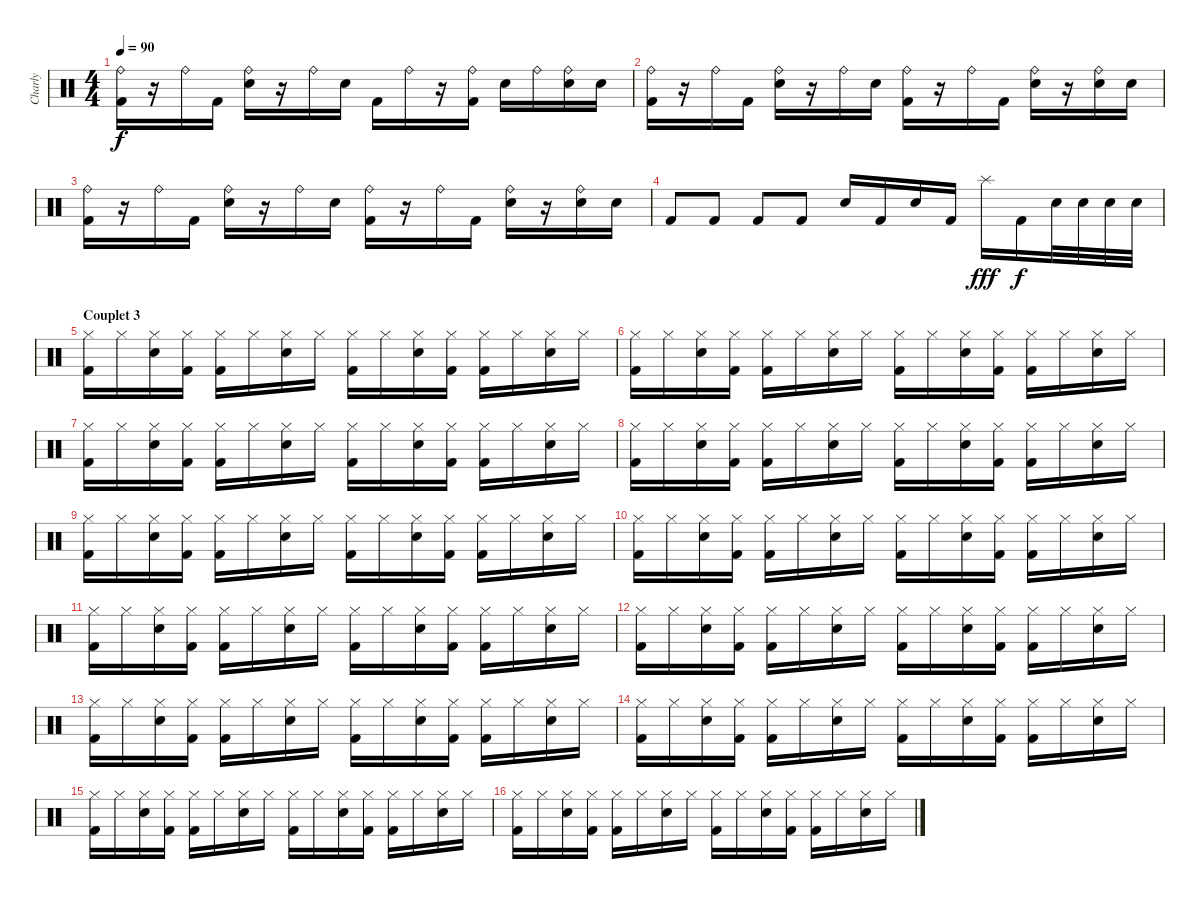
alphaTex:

\track ("Charly" "Charly") {instrument percussion}
\staff {score}
\articulation defaults
\ts (4 4)
\tempo 90
\clef neutral
\ks c
("Ride (bell)" "Kick (hit) 2").16{dy f} r.16 "Ride (bell)".16 "Kick (hit) 2".16 ("Ride (bell)" "Electric Snare (hit)").16 r.16 "Ride (bell)".16 "Electric Snare (hit)".16 "Kick (hit) 2".16 "Ride (bell)".16 r.16 ("Ride (bell)" "Kick (hit) 2").16 "Electric Snare (hit)".16 "Ride (bell)".16 ("Ride (bell)" "Electric Snare (hit)").16 "Electric Snare (hit)".16 |
("Ride (bell)" "Kick (hit) 2").16 r.16 "Ride (bell)".16 "Kick (hit) 2".16 ("Ride (bell)" "Electric Snare (hit)").16 r.16 "Ride (bell)".16 "Electric Snare (hit)".16 ("Ride (bell)" "Kick (hit) 2").16 r.16 "Ride (bell)".16 "Kick (hit) 2".16 ("Ride (bell)" "Electric Snare (hit)").16 r.16 ("Ride (bell)" "Electric Snare (hit)").16 "Electric Snare (hit)".16 |
("Ride (bell)" "Kick (hit) 2").16 r.16 "Ride (bell)".16 "Kick (hit) 2".16 ("Ride (bell)" "Electric Snare (hit)").16 r.16 "Ride (bell)".16 "Electric Snare (hit)".16 ("Ride (bell)" "Kick (hit) 2").16 r.16 "Ride (bell)".16 "Kick (hit) 2".16 ("Ride (bell)" "Electric Snare (hit)").16 r.16 ("Ride (bell)" "Electric Snare (hit)").16 "Electric Snare (hit)".16 |
"Kick (hit) 2".8 "Kick (hit) 2".8 "Kick (hit) 2".8 "Kick (hit) 2".8 "Electric Snare (hit)".16 "Kick (hit) 2".16 "Electric Snare (hit)".16 "Kick (hit) 2".16 "Splash (hit)".16{dy fff} "Kick (hit) 2".16{dy f} "Electric Snare (hit)".32 "Electric Snare (hit)".32 "Electric Snare (hit)".32 "Electric Snare (hit)".32 |
\section ("" "Couplet 3")
("Hi-Hat (closed)" "Kick (hit) 2").16 "Hi-Hat (closed)".16 ("Hi-Hat (closed)" "Electric Snare (hit)").16 ("Hi-Hat (closed)" "Kick (hit) 2").16 ("Hi-Hat (closed)" "Kick (hit) 2").16 "Hi-Hat (closed)".16 ("Hi-Hat (closed)" "Electric Snare (hit)").16 "Hi-Hat (closed)".16 ("Hi-Hat (closed)" "Kick (hit) 2").16 "Hi-Hat (closed)".16 ("Hi-Hat (closed)" "Electric Snare (hit)").16 ("Hi-Hat (closed)" "Kick (hit) 2").16 ("Hi-Hat (closed)" "Kick (hit) 2").16 "Hi-Hat (closed)".16 ("Hi-Hat (closed)" "Electric Snare (hit)").16 "Hi-Hat (closed)".16 |
("Hi-Hat (closed)" "Kick (hit) 2").16 "Hi-Hat (closed)".16 ("Hi-Hat (closed)" "Electric Snare (hit)").16 ("Hi-Hat (closed)" "Kick (hit) 2").16 ("Hi-Hat (closed)" "Kick (hit) 2").16 "Hi-Hat (closed)".16 ("Hi-Hat (closed)" "Electric Snare (hit)").16 "Hi-Hat (closed)".16 ("Hi-Hat (closed)" "Kick (hit) 2").16 "Hi-Hat (closed)".16 ("Hi-Hat (closed)" "Electric Snare (hit)").16 ("Hi-Hat (closed)" "Kick (hit) 2").16 ("Hi-Hat (closed)" "Kick (hit) 2").16 "Hi-Hat (closed)".16 ("Hi-Hat (closed)" "Electric Snare (hit)").16 "Hi-Hat (closed)".16 |
("Hi-Hat (closed)" "Kick (hit) 2").16 "Hi-Hat (closed)".16 ("Hi-Hat (closed)" "Electric Snare (hit)").16 ("Hi-Hat (closed)" "Kick (hit) 2").16 ("Hi-Hat (closed)" "Kick (hit) 2").16 "Hi-Hat (closed)".16 ("Hi-Hat (closed)" "Electric Snare (hit)").16 "Hi-Hat (closed)".16 ("Hi-Hat (closed)" "Kick (hit) 2").16 "Hi-Hat (closed)".16 ("Hi-Hat (closed)" "Electric Snare (hit)").16 ("Hi-Hat (closed)" "Kick (hit) 2").16 ("Hi-Hat (closed)" "Kick (hit) 2").16 "Hi-Hat (closed)".16 ("Hi-Hat (closed)" "Electric Snare (hit)").16 "Hi-Hat (closed)".16 |
("Hi-Hat (closed)" "Kick (hit) 2").16 "Hi-Hat (closed)".16 ("Hi-Hat (closed)" "Electric Snare (hit)").16 ("Hi-Hat (closed)" "Kick (hit) 2").16 ("Hi-Hat (closed)" "Kick (hit) 2").16 "Hi-Hat (closed)".16 ("Hi-Hat (closed)" "Electric Snare (hit)").16 "Hi-Hat (closed)".16 ("Hi-Hat (closed)" "Kick (hit) 2").16 "Hi-Hat (closed)".16 ("Hi-Hat (closed)" "Electric Snare (hit)").16 ("Hi-Hat (closed)" "Kick (hit) 2").16 ("Hi-Hat (closed)" "Kick (hit) 2").16 "Hi-Hat (closed)".16 ("Hi-Hat (closed)" "Electric Snare (hit)").16 "Hi-Hat (closed)".16 |
("Hi-Hat (closed)" "Kick (hit) 2").16 "Hi-Hat (closed)".16 ("Hi-Hat (closed)" "Electric Snare (hit)").16 ("Hi-Hat (closed)" "Kick (hit) 2").16 ("Hi-Hat (closed)" "Kick (hit) 2").16 "Hi-Hat (closed)".16 ("Hi-Hat (closed)" "Electric Snare (hit)").16 "Hi-Hat (closed)".16 ("Hi-Hat (closed)" "Kick (hit) 2").16 "Hi-Hat (closed)".16 ("Hi-Hat (closed)" "Electric Snare (hit)").16 ("Hi-Hat (closed)" "Kick (hit) 2").16 ("Hi-Hat (closed)" "Kick (hit) 2").16 "Hi-Hat (closed)".16 ("Hi-Hat (closed)" "Electric Snare (hit)").16 "Hi-Hat (closed)".16 |
("Hi-Hat (closed)" "Kick (hit) 2").16 "Hi-Hat (closed)".16 ("Hi-Hat (closed)" "Electric Snare (hit)").16 ("Hi-Hat (closed)" "Kick (hit) 2").16 ("Hi-Hat (closed)" "Kick (hit) 2").16 "Hi-Hat (closed)".16 ("Hi-Hat (closed)" "Electric Snare (hit)").16 "Hi-Hat (closed)".16 ("Hi-Hat (closed)" "Kick (hit) 2").16 "Hi-Hat (closed)".16 ("Hi-Hat (closed)" "Electric Snare (hit)").16 ("Hi-Hat (closed)" "Kick (hit) 2").16 ("Hi-Hat (closed)" "Kick (hit) 2").16 "Hi-Hat (closed)".16 ("Hi-Hat (closed)" "Electric Snare (hit)").16 "Hi-Hat (closed)".16 |
("Hi-Hat (closed)" "Kick (hit) 2").16 "Hi-Hat (closed)".16 ("Hi-Hat (closed)" "Electric Snare (hit)").16 ("Hi-Hat (closed)" "Kick (hit) 2").16 ("Hi-Hat (closed)" "Kick (hit) 2").16 "Hi-Hat (closed)".16 ("Hi-Hat (closed)" "Electric Snare (hit)").16 "Hi-Hat (closed)".16 ("Hi-Hat (closed)" "Kick (hit) 2").16 "Hi-Hat (closed)".16 ("Hi-Hat (closed)" "Electric Snare (hit)").16 ("Hi-Hat (closed)" "Kick (hit) 2").16 ("Hi-Hat (closed)" "Kick (hit) 2").16 "Hi-Hat (closed)".16 ("Hi-Hat (closed)" "Electric Snare (hit)").16 "Hi-Hat (closed)".16 |
("Hi-Hat (closed)" "Kick (hit) 2").16 "Hi-Hat (closed)".16 ("Hi-Hat (closed)" "Electric Snare (hit)").16 ("Hi-Hat (closed)" "Kick (hit) 2").16 ("Hi-Hat (closed)" "Kick (hit) 2").16 "Hi-Hat (closed)".16 ("Hi-Hat (closed)" "Electric Snare (hit)").16 "Hi-Hat (closed)".16 ("Hi-Hat (closed)" "Kick (hit) 2").16 "Hi-Hat (closed)".16 ("Hi-Hat (closed)" "Electric Snare (hit)").16 ("Hi-Hat (closed)" "Kick (hit) 2").16 ("Hi-Hat (closed)" "Kick (hit) 2").16 "Hi-Hat (closed)".16 ("Hi-Hat (closed)" "Electric Snare (hit)").16 "Hi-Hat (closed)".16 |
("Hi-Hat (closed)" "Kick (hit) 2").16 "Hi-Hat (closed)".16 ("Hi-Hat (closed)" "Electric Snare (hit)").16 ("Hi-Hat (closed)" "Kick (hit) 2").16 ("Hi-Hat (closed)" "Kick (hit) 2").16 "Hi-Hat (closed)".16 ("Hi-Hat (closed)" "Electric Snare (hit)").16 "Hi-Hat (closed)".16 ("Hi-Hat (closed)" "Kick (hit) 2").16 "Hi-Hat (closed)".16 ("Hi-Hat (closed)" "Electric Snare (hit)").16 ("Hi-Hat (closed)" "Kick (hit) 2").16 ("Hi-Hat (closed)" "Kick (hit) 2").16 "Hi-Hat (closed)".16 ("Hi-Hat (closed)" "Electric Snare (hit)").16 "Hi-Hat (closed)".16 |
("Hi-Hat (closed)" "Kick (hit) 2").16 "Hi-Hat (closed)".16 ("Hi-Hat (closed)" "Electric Snare (hit)").16 ("Hi-Hat (closed)" "Kick (hit) 2").16 ("Hi-Hat (closed)" "Kick (hit) 2").16 "Hi-Hat (closed)".16 ("Hi-Hat (closed)" "Electric Snare (hit)").16 "Hi-Hat (closed)".16 ("Hi-Hat (closed)" "Kick (hit) 2").16 "Hi-Hat (closed)".16 ("Hi-Hat (closed)" "Electric Snare (hit)").16 ("Hi-Hat (closed)" "Kick (hit) 2").16 ("Hi-Hat (closed)" "Kick (hit) 2").16 "Hi-Hat (closed)".16 ("Hi-Hat (closed)" "Electric Snare (hit)").16 "Hi-Hat (closed)".16 |
("Hi-Hat (closed)" "Kick (hit) 2").16 "Hi-Hat (closed)".16 ("Hi-Hat (closed)" "Electric Snare (hit)").16 ("Hi-Hat (closed)" "Kick (hit) 2").16 ("Hi-Hat (closed)" "Kick (hit) 2").16 "Hi-Hat (closed)".16 ("Hi-Hat (closed)" "Electric Snare (hit)").16 "Hi-Hat (closed)".16 ("Hi-Hat (closed)" "Kick (hit) 2").16 "Hi-Hat (closed)".16 ("Hi-Hat (closed)" "Electric Snare (hit)").16 ("Hi-Hat (closed)" "Kick (hit) 2").16 ("Hi-Hat (closed)" "Kick (hit) 2").16 "Hi-Hat (closed)".16 ("Hi-Hat (closed)" "Electric Snare (hit)").16 "Hi-Hat (closed)".16 |
("Hi-Hat (closed)" "Kick (hit) 2").16 "Hi-Hat (closed)".16 ("Hi-Hat (closed)" "Electric Snare (hit)").16 ("Hi-Hat (closed)" "Kick (hit) 2").16 ("Hi-Hat (closed)" "Kick (hit) 2").16 "Hi-Hat (closed)".16 ("Hi-Hat (closed)" "Electric Snare (hit)").16 "Hi-Hat (closed)".16 ("Hi-Hat (closed)" "Kick (hit) 2").16 "Hi-Hat (closed)".16 ("Hi-Hat (closed)" "Electric Snare (hit)").16 ("Hi-Hat (closed)" "Kick (hit) 2").16 ("Hi-Hat (closed)" "Kick (hit) 2").16 "Hi-Hat (closed)".16 ("Hi-Hat (closed)" "Electric Snare (hit)").16 "Hi-Hat (closed)".16
